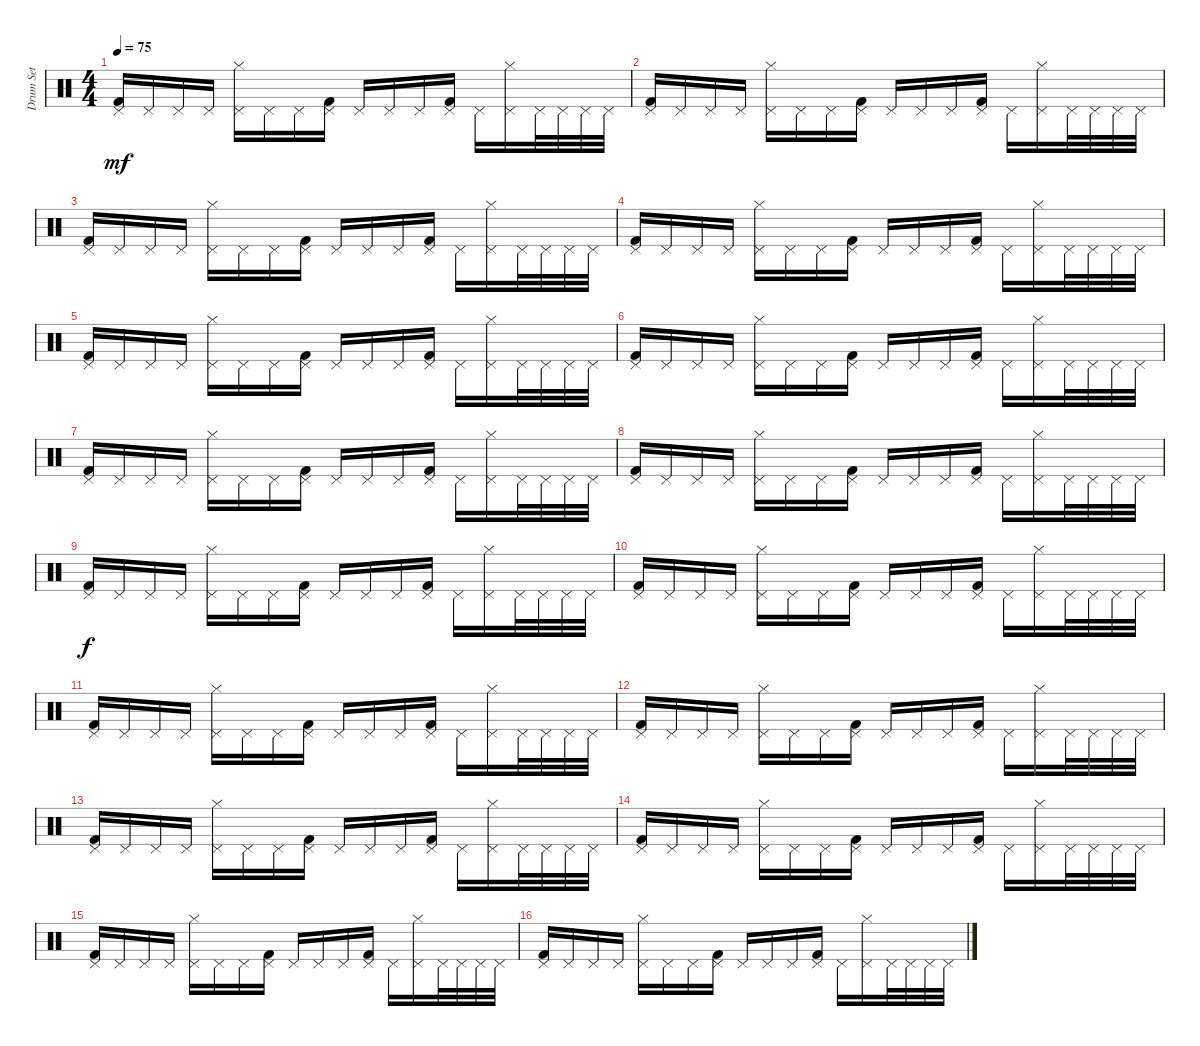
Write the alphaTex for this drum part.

\track ("Drum Set" "Drum Set") {instrument percussion}
\staff {score}
\articulation defaults
\ts (4 4)
\tempo 75
\clef neutral
\ks c
("Kick (hit) 2" "Pedal Hi-Hat (hit)").16{dy mf} "Pedal Hi-Hat (hit)".16 "Pedal Hi-Hat (hit)".16 "Pedal Hi-Hat (hit)".16 ("Hi-Hat (closed)" "Pedal Hi-Hat (hit)").16 "Pedal Hi-Hat (hit)".16 "Pedal Hi-Hat (hit)".16 ("Kick (hit) 2" "Pedal Hi-Hat (hit)").16 "Pedal Hi-Hat (hit)".16 "Pedal Hi-Hat (hit)".16 "Pedal Hi-Hat (hit)".16 ("Kick (hit) 2" "Pedal Hi-Hat (hit)").16 "Pedal Hi-Hat (hit)".16 ("Hi-Hat (closed)" "Pedal Hi-Hat (hit)").16 "Pedal Hi-Hat (hit)".32 "Pedal Hi-Hat (hit)".32 "Pedal Hi-Hat (hit)".32 "Pedal Hi-Hat (hit)".32 |
("Kick (hit) 2" "Pedal Hi-Hat (hit)").16 "Pedal Hi-Hat (hit)".16 "Pedal Hi-Hat (hit)".16 "Pedal Hi-Hat (hit)".16 ("Hi-Hat (closed)" "Pedal Hi-Hat (hit)").16 "Pedal Hi-Hat (hit)".16 "Pedal Hi-Hat (hit)".16 ("Kick (hit) 2" "Pedal Hi-Hat (hit)").16 "Pedal Hi-Hat (hit)".16 "Pedal Hi-Hat (hit)".16 "Pedal Hi-Hat (hit)".16 ("Kick (hit) 2" "Pedal Hi-Hat (hit)").16 "Pedal Hi-Hat (hit)".16 ("Hi-Hat (closed)" "Pedal Hi-Hat (hit)").16 "Pedal Hi-Hat (hit)".32 "Pedal Hi-Hat (hit)".32 "Pedal Hi-Hat (hit)".32 "Pedal Hi-Hat (hit)".32 |
("Kick (hit) 2" "Pedal Hi-Hat (hit)").16 "Pedal Hi-Hat (hit)".16 "Pedal Hi-Hat (hit)".16 "Pedal Hi-Hat (hit)".16 ("Hi-Hat (closed)" "Pedal Hi-Hat (hit)").16 "Pedal Hi-Hat (hit)".16 "Pedal Hi-Hat (hit)".16 ("Kick (hit) 2" "Pedal Hi-Hat (hit)").16 "Pedal Hi-Hat (hit)".16 "Pedal Hi-Hat (hit)".16 "Pedal Hi-Hat (hit)".16 ("Kick (hit) 2" "Pedal Hi-Hat (hit)").16 "Pedal Hi-Hat (hit)".16 ("Hi-Hat (closed)" "Pedal Hi-Hat (hit)").16 "Pedal Hi-Hat (hit)".32 "Pedal Hi-Hat (hit)".32 "Pedal Hi-Hat (hit)".32 "Pedal Hi-Hat (hit)".32 |
("Kick (hit) 2" "Pedal Hi-Hat (hit)").16 "Pedal Hi-Hat (hit)".16 "Pedal Hi-Hat (hit)".16 "Pedal Hi-Hat (hit)".16 ("Hi-Hat (closed)" "Pedal Hi-Hat (hit)").16 "Pedal Hi-Hat (hit)".16 "Pedal Hi-Hat (hit)".16 ("Kick (hit) 2" "Pedal Hi-Hat (hit)").16 "Pedal Hi-Hat (hit)".16 "Pedal Hi-Hat (hit)".16 "Pedal Hi-Hat (hit)".16 ("Kick (hit) 2" "Pedal Hi-Hat (hit)").16 "Pedal Hi-Hat (hit)".16 ("Hi-Hat (closed)" "Pedal Hi-Hat (hit)").16 "Pedal Hi-Hat (hit)".32 "Pedal Hi-Hat (hit)".32 "Pedal Hi-Hat (hit)".32 "Pedal Hi-Hat (hit)".32 |
("Kick (hit) 2" "Pedal Hi-Hat (hit)").16 "Pedal Hi-Hat (hit)".16 "Pedal Hi-Hat (hit)".16 "Pedal Hi-Hat (hit)".16 ("Hi-Hat (closed)" "Pedal Hi-Hat (hit)").16 "Pedal Hi-Hat (hit)".16 "Pedal Hi-Hat (hit)".16 ("Kick (hit) 2" "Pedal Hi-Hat (hit)").16 "Pedal Hi-Hat (hit)".16 "Pedal Hi-Hat (hit)".16 "Pedal Hi-Hat (hit)".16 ("Kick (hit) 2" "Pedal Hi-Hat (hit)").16 "Pedal Hi-Hat (hit)".16 ("Hi-Hat (closed)" "Pedal Hi-Hat (hit)").16 "Pedal Hi-Hat (hit)".32 "Pedal Hi-Hat (hit)".32 "Pedal Hi-Hat (hit)".32 "Pedal Hi-Hat (hit)".32 |
("Kick (hit) 2" "Pedal Hi-Hat (hit)").16 "Pedal Hi-Hat (hit)".16 "Pedal Hi-Hat (hit)".16 "Pedal Hi-Hat (hit)".16 ("Hi-Hat (closed)" "Pedal Hi-Hat (hit)").16 "Pedal Hi-Hat (hit)".16 "Pedal Hi-Hat (hit)".16 ("Kick (hit) 2" "Pedal Hi-Hat (hit)").16 "Pedal Hi-Hat (hit)".16 "Pedal Hi-Hat (hit)".16 "Pedal Hi-Hat (hit)".16 ("Kick (hit) 2" "Pedal Hi-Hat (hit)").16 "Pedal Hi-Hat (hit)".16 ("Hi-Hat (closed)" "Pedal Hi-Hat (hit)").16 "Pedal Hi-Hat (hit)".32 "Pedal Hi-Hat (hit)".32 "Pedal Hi-Hat (hit)".32 "Pedal Hi-Hat (hit)".32 |
("Kick (hit) 2" "Pedal Hi-Hat (hit)").16 "Pedal Hi-Hat (hit)".16 "Pedal Hi-Hat (hit)".16 "Pedal Hi-Hat (hit)".16 ("Hi-Hat (closed)" "Pedal Hi-Hat (hit)").16 "Pedal Hi-Hat (hit)".16 "Pedal Hi-Hat (hit)".16 ("Kick (hit) 2" "Pedal Hi-Hat (hit)").16 "Pedal Hi-Hat (hit)".16 "Pedal Hi-Hat (hit)".16 "Pedal Hi-Hat (hit)".16 ("Kick (hit) 2" "Pedal Hi-Hat (hit)").16 "Pedal Hi-Hat (hit)".16 ("Hi-Hat (closed)" "Pedal Hi-Hat (hit)").16 "Pedal Hi-Hat (hit)".32 "Pedal Hi-Hat (hit)".32 "Pedal Hi-Hat (hit)".32 "Pedal Hi-Hat (hit)".32 |
("Kick (hit) 2" "Pedal Hi-Hat (hit)").16 "Pedal Hi-Hat (hit)".16 "Pedal Hi-Hat (hit)".16 "Pedal Hi-Hat (hit)".16 ("Hi-Hat (closed)" "Pedal Hi-Hat (hit)").16 "Pedal Hi-Hat (hit)".16 "Pedal Hi-Hat (hit)".16 ("Kick (hit) 2" "Pedal Hi-Hat (hit)").16 "Pedal Hi-Hat (hit)".16 "Pedal Hi-Hat (hit)".16 "Pedal Hi-Hat (hit)".16 ("Kick (hit) 2" "Pedal Hi-Hat (hit)").16 "Pedal Hi-Hat (hit)".16 ("Hi-Hat (closed)" "Pedal Hi-Hat (hit)").16 "Pedal Hi-Hat (hit)".32 "Pedal Hi-Hat (hit)".32 "Pedal Hi-Hat (hit)".32 "Pedal Hi-Hat (hit)".32 |
("Kick (hit) 2" "Pedal Hi-Hat (hit)").16{dy f} "Pedal Hi-Hat (hit)".16 "Pedal Hi-Hat (hit)".16 "Pedal Hi-Hat (hit)".16 ("Hi-Hat (closed)" "Pedal Hi-Hat (hit)").16 "Pedal Hi-Hat (hit)".16 "Pedal Hi-Hat (hit)".16 ("Kick (hit) 2" "Pedal Hi-Hat (hit)").16 "Pedal Hi-Hat (hit)".16 "Pedal Hi-Hat (hit)".16 "Pedal Hi-Hat (hit)".16 ("Kick (hit) 2" "Pedal Hi-Hat (hit)").16 "Pedal Hi-Hat (hit)".16 ("Hi-Hat (closed)" "Pedal Hi-Hat (hit)").16 "Pedal Hi-Hat (hit)".32 "Pedal Hi-Hat (hit)".32 "Pedal Hi-Hat (hit)".32 "Pedal Hi-Hat (hit)".32 |
("Kick (hit) 2" "Pedal Hi-Hat (hit)").16 "Pedal Hi-Hat (hit)".16 "Pedal Hi-Hat (hit)".16 "Pedal Hi-Hat (hit)".16 ("Hi-Hat (closed)" "Pedal Hi-Hat (hit)").16 "Pedal Hi-Hat (hit)".16 "Pedal Hi-Hat (hit)".16 ("Kick (hit) 2" "Pedal Hi-Hat (hit)").16 "Pedal Hi-Hat (hit)".16 "Pedal Hi-Hat (hit)".16 "Pedal Hi-Hat (hit)".16 ("Kick (hit) 2" "Pedal Hi-Hat (hit)").16 "Pedal Hi-Hat (hit)".16 ("Hi-Hat (closed)" "Pedal Hi-Hat (hit)").16 "Pedal Hi-Hat (hit)".32 "Pedal Hi-Hat (hit)".32 "Pedal Hi-Hat (hit)".32 "Pedal Hi-Hat (hit)".32 |
("Kick (hit) 2" "Pedal Hi-Hat (hit)").16 "Pedal Hi-Hat (hit)".16 "Pedal Hi-Hat (hit)".16 "Pedal Hi-Hat (hit)".16 ("Hi-Hat (closed)" "Pedal Hi-Hat (hit)").16 "Pedal Hi-Hat (hit)".16 "Pedal Hi-Hat (hit)".16 ("Kick (hit) 2" "Pedal Hi-Hat (hit)").16 "Pedal Hi-Hat (hit)".16 "Pedal Hi-Hat (hit)".16 "Pedal Hi-Hat (hit)".16 ("Kick (hit) 2" "Pedal Hi-Hat (hit)").16 "Pedal Hi-Hat (hit)".16 ("Hi-Hat (closed)" "Pedal Hi-Hat (hit)").16 "Pedal Hi-Hat (hit)".32 "Pedal Hi-Hat (hit)".32 "Pedal Hi-Hat (hit)".32 "Pedal Hi-Hat (hit)".32 |
("Kick (hit) 2" "Pedal Hi-Hat (hit)").16 "Pedal Hi-Hat (hit)".16 "Pedal Hi-Hat (hit)".16 "Pedal Hi-Hat (hit)".16 ("Hi-Hat (closed)" "Pedal Hi-Hat (hit)").16 "Pedal Hi-Hat (hit)".16 "Pedal Hi-Hat (hit)".16 ("Kick (hit) 2" "Pedal Hi-Hat (hit)").16 "Pedal Hi-Hat (hit)".16 "Pedal Hi-Hat (hit)".16 "Pedal Hi-Hat (hit)".16 ("Kick (hit) 2" "Pedal Hi-Hat (hit)").16 "Pedal Hi-Hat (hit)".16 ("Hi-Hat (closed)" "Pedal Hi-Hat (hit)").16 "Pedal Hi-Hat (hit)".32 "Pedal Hi-Hat (hit)".32 "Pedal Hi-Hat (hit)".32 "Pedal Hi-Hat (hit)".32 |
("Kick (hit) 2" "Pedal Hi-Hat (hit)").16 "Pedal Hi-Hat (hit)".16 "Pedal Hi-Hat (hit)".16 "Pedal Hi-Hat (hit)".16 ("Hi-Hat (closed)" "Pedal Hi-Hat (hit)").16 "Pedal Hi-Hat (hit)".16 "Pedal Hi-Hat (hit)".16 ("Kick (hit) 2" "Pedal Hi-Hat (hit)").16 "Pedal Hi-Hat (hit)".16 "Pedal Hi-Hat (hit)".16 "Pedal Hi-Hat (hit)".16 ("Kick (hit) 2" "Pedal Hi-Hat (hit)").16 "Pedal Hi-Hat (hit)".16 ("Hi-Hat (closed)" "Pedal Hi-Hat (hit)").16 "Pedal Hi-Hat (hit)".32 "Pedal Hi-Hat (hit)".32 "Pedal Hi-Hat (hit)".32 "Pedal Hi-Hat (hit)".32 |
("Kick (hit) 2" "Pedal Hi-Hat (hit)").16 "Pedal Hi-Hat (hit)".16 "Pedal Hi-Hat (hit)".16 "Pedal Hi-Hat (hit)".16 ("Hi-Hat (closed)" "Pedal Hi-Hat (hit)").16 "Pedal Hi-Hat (hit)".16 "Pedal Hi-Hat (hit)".16 ("Kick (hit) 2" "Pedal Hi-Hat (hit)").16 "Pedal Hi-Hat (hit)".16 "Pedal Hi-Hat (hit)".16 "Pedal Hi-Hat (hit)".16 ("Kick (hit) 2" "Pedal Hi-Hat (hit)").16 "Pedal Hi-Hat (hit)".16 ("Hi-Hat (closed)" "Pedal Hi-Hat (hit)").16 "Pedal Hi-Hat (hit)".32 "Pedal Hi-Hat (hit)".32 "Pedal Hi-Hat (hit)".32 "Pedal Hi-Hat (hit)".32 |
("Kick (hit) 2" "Pedal Hi-Hat (hit)").16 "Pedal Hi-Hat (hit)".16 "Pedal Hi-Hat (hit)".16 "Pedal Hi-Hat (hit)".16 ("Hi-Hat (closed)" "Pedal Hi-Hat (hit)").16 "Pedal Hi-Hat (hit)".16 "Pedal Hi-Hat (hit)".16 ("Kick (hit) 2" "Pedal Hi-Hat (hit)").16 "Pedal Hi-Hat (hit)".16 "Pedal Hi-Hat (hit)".16 "Pedal Hi-Hat (hit)".16 ("Kick (hit) 2" "Pedal Hi-Hat (hit)").16 "Pedal Hi-Hat (hit)".16 ("Hi-Hat (closed)" "Pedal Hi-Hat (hit)").16 "Pedal Hi-Hat (hit)".32 "Pedal Hi-Hat (hit)".32 "Pedal Hi-Hat (hit)".32 "Pedal Hi-Hat (hit)".32 |
("Kick (hit) 2" "Pedal Hi-Hat (hit)").16 "Pedal Hi-Hat (hit)".16 "Pedal Hi-Hat (hit)".16 "Pedal Hi-Hat (hit)".16 ("Hi-Hat (closed)" "Pedal Hi-Hat (hit)").16 "Pedal Hi-Hat (hit)".16 "Pedal Hi-Hat (hit)".16 ("Kick (hit) 2" "Pedal Hi-Hat (hit)").16 "Pedal Hi-Hat (hit)".16 "Pedal Hi-Hat (hit)".16 "Pedal Hi-Hat (hit)".16 ("Kick (hit) 2" "Pedal Hi-Hat (hit)").16 "Pedal Hi-Hat (hit)".16 ("Hi-Hat (closed)" "Pedal Hi-Hat (hit)").16 "Pedal Hi-Hat (hit)".32 "Pedal Hi-Hat (hit)".32 "Pedal Hi-Hat (hit)".32 "Pedal Hi-Hat (hit)".32
